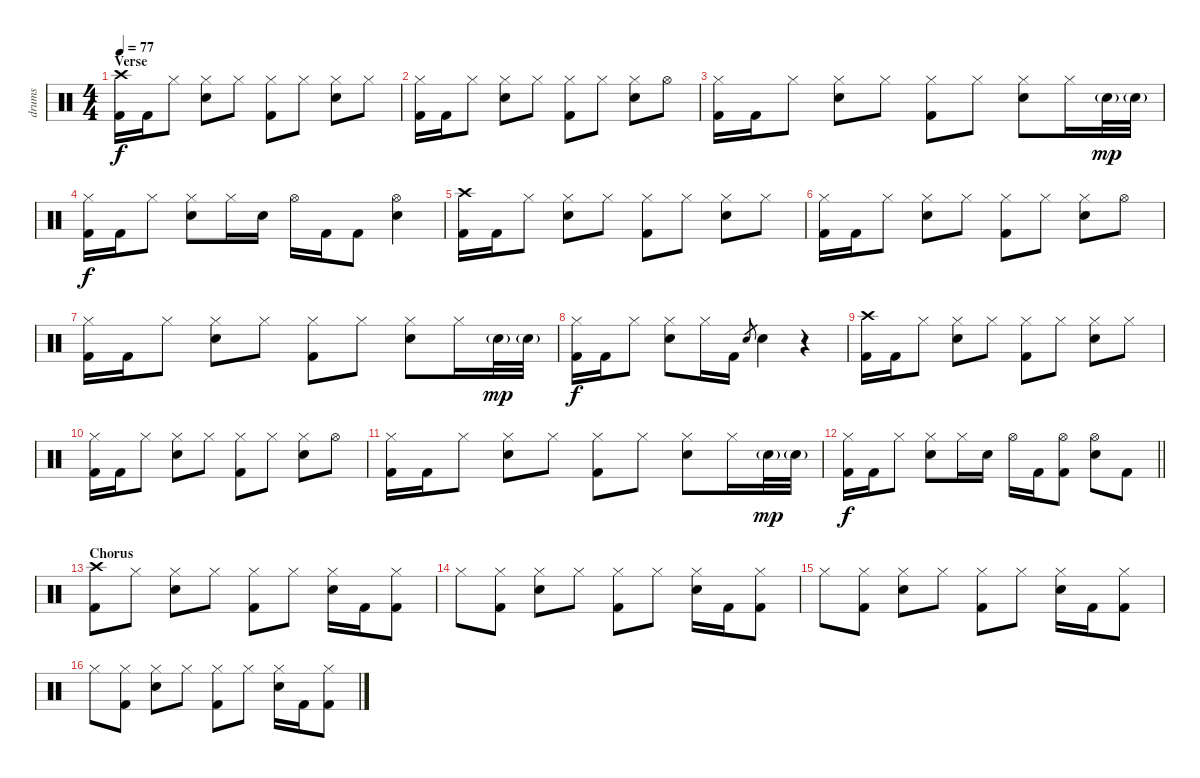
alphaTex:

\track ("drums" "drums") {instrument percussion}
\staff {score}
\articulation defaults
\ts (4 4)
\section ("" "Verse")
\tempo 77
\clef neutral
\ks c
("Crash high (hit)" "Kick (hit) 2").16{dy f} "Kick (hit) 2".16 "Hi-Hat (closed)".8 ("Hi-Hat (closed)" "Electric Snare (hit)").8 "Hi-Hat (closed)".8 ("Hi-Hat (closed)" "Kick (hit) 2").8 "Hi-Hat (closed)".8 ("Hi-Hat (closed)" "Electric Snare (hit)").8 "Hi-Hat (closed)".8 |
("Hi-Hat (closed)" "Kick (hit) 2").16 "Kick (hit) 2".16 "Hi-Hat (closed)".8 ("Hi-Hat (closed)" "Electric Snare (hit)").8 "Hi-Hat (closed)".8 ("Hi-Hat (closed)" "Kick (hit) 2").8 "Hi-Hat (closed)".8 ("Hi-Hat (closed)" "Electric Snare (hit)").8 "Hi-Hat (open)".8 |
("Hi-Hat (closed)" "Kick (hit) 2").16 "Kick (hit) 2".16 "Hi-Hat (closed)".8 ("Hi-Hat (closed)" "Electric Snare (hit)").8 "Hi-Hat (closed)".8 ("Hi-Hat (closed)" "Kick (hit) 2").8 "Hi-Hat (closed)".8 ("Hi-Hat (closed)" "Electric Snare (hit)").8 "Hi-Hat (closed)".16 "Electric Snare (hit)"{g}.32{dy mp} "Electric Snare (hit)"{g}.32 |
("Hi-Hat (closed)" "Kick (hit) 2").16{dy f} "Kick (hit) 2".16 "Hi-Hat (closed)".8 ("Hi-Hat (closed)" "Electric Snare (hit)").8 "Hi-Hat (closed)".16 "Electric Snare (hit)".16 "Hi-Hat (open)".16 "Kick (hit) 2".16 "Kick (hit) 2".8 ("Hi-Hat (open)" "Electric Snare (hit)").4 |
("Crash high (hit)" "Kick (hit) 2").16 "Kick (hit) 2".16 "Hi-Hat (closed)".8 ("Hi-Hat (closed)" "Electric Snare (hit)").8 "Hi-Hat (closed)".8 ("Hi-Hat (closed)" "Kick (hit) 2").8 "Hi-Hat (closed)".8 ("Hi-Hat (closed)" "Electric Snare (hit)").8 "Hi-Hat (closed)".8 |
("Hi-Hat (closed)" "Kick (hit) 2").16 "Kick (hit) 2".16 "Hi-Hat (closed)".8 ("Hi-Hat (closed)" "Electric Snare (hit)").8 "Hi-Hat (closed)".8 ("Hi-Hat (closed)" "Kick (hit) 2").8 "Hi-Hat (closed)".8 ("Hi-Hat (closed)" "Electric Snare (hit)").8 "Hi-Hat (open)".8 |
("Hi-Hat (closed)" "Kick (hit) 2").16 "Kick (hit) 2".16 "Hi-Hat (closed)".8 ("Hi-Hat (closed)" "Electric Snare (hit)").8 "Hi-Hat (closed)".8 ("Hi-Hat (closed)" "Kick (hit) 2").8 "Hi-Hat (closed)".8 ("Hi-Hat (closed)" "Electric Snare (hit)").8 "Hi-Hat (closed)".16 "Electric Snare (hit)"{g}.32{dy mp} "Electric Snare (hit)"{g}.32 |
("Hi-Hat (closed)" "Kick (hit) 2").16{dy f} "Kick (hit) 2".16 "Hi-Hat (closed)".8 ("Hi-Hat (closed)" "Electric Snare (hit)").8 "Hi-Hat (closed)".16 "Kick (hit) 2".16 "Electric Snare (hit)".8{gr} "Electric Snare (hit)".4 r.4 |
("Crash high (hit)" "Kick (hit) 2").16 "Kick (hit) 2".16 "Hi-Hat (closed)".8 ("Hi-Hat (closed)" "Electric Snare (hit)").8 "Hi-Hat (closed)".8 ("Hi-Hat (closed)" "Kick (hit) 2").8 "Hi-Hat (closed)".8 ("Hi-Hat (closed)" "Electric Snare (hit)").8 "Hi-Hat (closed)".8 |
("Hi-Hat (closed)" "Kick (hit) 2").16 "Kick (hit) 2".16 "Hi-Hat (closed)".8 ("Hi-Hat (closed)" "Electric Snare (hit)").8 "Hi-Hat (closed)".8 ("Hi-Hat (closed)" "Kick (hit) 2").8 "Hi-Hat (closed)".8 ("Hi-Hat (closed)" "Electric Snare (hit)").8 "Hi-Hat (open)".8 |
("Hi-Hat (closed)" "Kick (hit) 2").16 "Kick (hit) 2".16 "Hi-Hat (closed)".8 ("Hi-Hat (closed)" "Electric Snare (hit)").8 "Hi-Hat (closed)".8 ("Hi-Hat (closed)" "Kick (hit) 2").8 "Hi-Hat (closed)".8 ("Hi-Hat (closed)" "Electric Snare (hit)").8 "Hi-Hat (closed)".16 "Electric Snare (hit)"{g}.32{dy mp} "Electric Snare (hit)"{g}.32 |
\barLineRight lightlight
("Hi-Hat (closed)" "Kick (hit) 2").16{dy f} "Kick (hit) 2".16 "Hi-Hat (closed)".8 ("Hi-Hat (closed)" "Electric Snare (hit)").8 "Hi-Hat (closed)".16 "Electric Snare (hit)".16 "Hi-Hat (open)".16 "Kick (hit) 2".16 ("Hi-Hat (open)" "Kick (hit) 2").8 ("Hi-Hat (open)" "Electric Snare (hit)").8 "Kick (hit) 2".8 |
\section ("" "Chorus")
("Crash high (hit)" "Kick (hit) 2").8 "Hi-Hat (closed)".8 ("Hi-Hat (closed)" "Electric Snare (hit)").8 "Hi-Hat (closed)".8 ("Hi-Hat (closed)" "Kick (hit) 2").8 "Hi-Hat (closed)".8 ("Hi-Hat (closed)" "Electric Snare (hit)").16 "Kick (hit) 2".16 ("Hi-Hat (closed)" "Kick (hit) 2").8 |
"Hi-Hat (closed)".8 ("Hi-Hat (closed)" "Kick (hit) 2").8 ("Hi-Hat (closed)" "Electric Snare (hit)").8 "Hi-Hat (closed)".8 ("Hi-Hat (closed)" "Kick (hit) 2").8 "Hi-Hat (closed)".8 ("Hi-Hat (closed)" "Electric Snare (hit)").16 "Kick (hit) 2".16 ("Hi-Hat (closed)" "Kick (hit) 2").8 |
"Hi-Hat (closed)".8 ("Hi-Hat (closed)" "Kick (hit) 2").8 ("Hi-Hat (closed)" "Electric Snare (hit)").8 "Hi-Hat (closed)".8 ("Hi-Hat (closed)" "Kick (hit) 2").8 "Hi-Hat (closed)".8 ("Hi-Hat (closed)" "Electric Snare (hit)").16 "Kick (hit) 2".16 ("Hi-Hat (closed)" "Kick (hit) 2").8 |
"Hi-Hat (closed)".8 ("Hi-Hat (closed)" "Kick (hit) 2").8 ("Hi-Hat (closed)" "Electric Snare (hit)").8 "Hi-Hat (closed)".8 ("Hi-Hat (closed)" "Kick (hit) 2").8 "Hi-Hat (closed)".8 ("Hi-Hat (closed)" "Electric Snare (hit)").16 "Kick (hit) 2".16 ("Hi-Hat (closed)" "Kick (hit) 2").8
